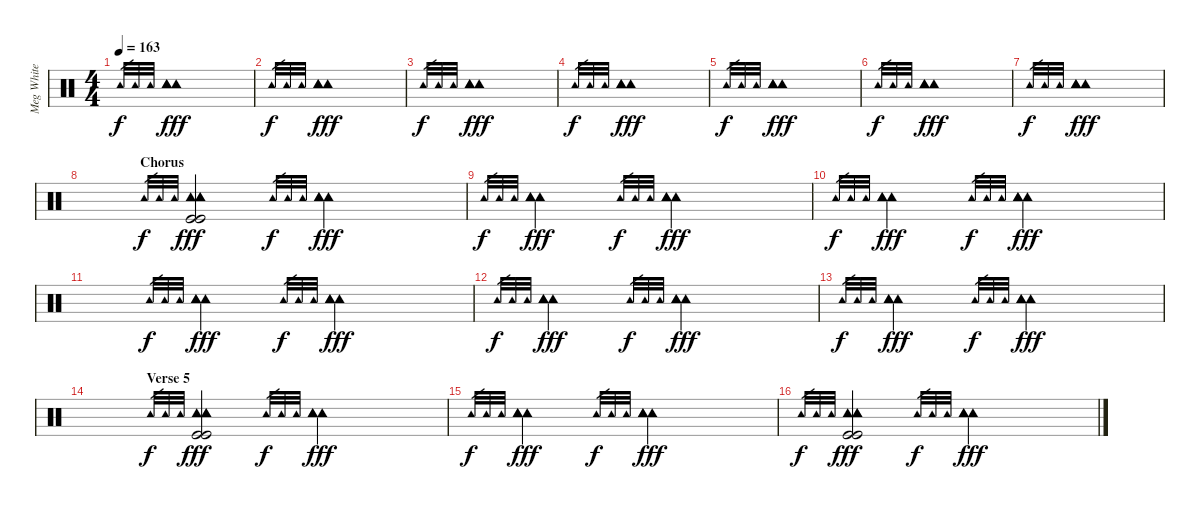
\track ("Meg White" "Meg White") {instrument percussion}
\staff {score}
\articulation defaults
\ts (4 4)
\tempo 163
\clef neutral
\ks c "Tambourine (hit)".32{gr dy f} "Tambourine (hit)".32{gr} "Tambourine (hit)".32{gr}
("Tambourine (hit)" "Tambourine (hit)" "Tambourine (hit)").1{dy fff} |
"Tambourine (hit)".32{gr dy f} "Tambourine (hit)".32{gr} "Tambourine (hit)".32{gr} ("Tambourine (hit)" "Tambourine (hit)" "Tambourine (hit)").1{dy fff} |
"Tambourine (hit)".32{gr dy f} "Tambourine (hit)".32{gr} "Tambourine (hit)".32{gr} ("Tambourine (hit)" "Tambourine (hit)" "Tambourine (hit)").1{dy fff} |
"Tambourine (hit)".32{gr dy f} "Tambourine (hit)".32{gr} "Tambourine (hit)".32{gr} ("Tambourine (hit)" "Tambourine (hit)" "Tambourine (hit)").1{dy fff} |
"Tambourine (hit)".32{gr dy f} "Tambourine (hit)".32{gr} "Tambourine (hit)".32{gr} ("Tambourine (hit)" "Tambourine (hit)" "Tambourine (hit)").1{dy fff} |
"Tambourine (hit)".32{gr dy f} "Tambourine (hit)".32{gr} "Tambourine (hit)".32{gr} ("Tambourine (hit)" "Tambourine (hit)" "Tambourine (hit)").1{dy fff} |
"Tambourine (hit)".32{gr dy f} "Tambourine (hit)".32{gr} "Tambourine (hit)".32{gr} ("Tambourine (hit)" "Tambourine (hit)" "Tambourine (hit)").1{dy fff} |
\section ("" "Chorus")
"Tambourine (hit)".32{gr dy f} "Tambourine (hit)".32{gr} "Tambourine (hit)".32{gr} ("Tambourine (hit)" "Tambourine (hit)" "Tambourine (hit)" "Kick (hit)" "Kick (hit)").2{dy fff} "Tambourine (hit)".32{gr dy f} "Tambourine (hit)".32{gr} "Tambourine (hit)".32{gr} ("Tambourine (hit)" "Tambourine (hit)" "Tambourine (hit)").2{dy fff} |
"Tambourine (hit)".32{gr dy f} "Tambourine (hit)".32{gr} "Tambourine (hit)".32{gr} ("Tambourine (hit)" "Tambourine (hit)" "Tambourine (hit)").2{dy fff} "Tambourine (hit)".32{gr dy f} "Tambourine (hit)".32{gr} "Tambourine (hit)".32{gr} ("Tambourine (hit)" "Tambourine (hit)" "Tambourine (hit)").2{dy fff} |
"Tambourine (hit)".32{gr dy f} "Tambourine (hit)".32{gr} "Tambourine (hit)".32{gr} ("Tambourine (hit)" "Tambourine (hit)" "Tambourine (hit)").2{dy fff} "Tambourine (hit)".32{gr dy f} "Tambourine (hit)".32{gr} "Tambourine (hit)".32{gr} ("Tambourine (hit)" "Tambourine (hit)" "Tambourine (hit)").2{dy fff} |
"Tambourine (hit)".32{gr dy f} "Tambourine (hit)".32{gr} "Tambourine (hit)".32{gr} ("Tambourine (hit)" "Tambourine (hit)" "Tambourine (hit)").2{dy fff} "Tambourine (hit)".32{gr dy f} "Tambourine (hit)".32{gr} "Tambourine (hit)".32{gr} ("Tambourine (hit)" "Tambourine (hit)" "Tambourine (hit)").2{dy fff} |
"Tambourine (hit)".32{gr dy f} "Tambourine (hit)".32{gr} "Tambourine (hit)".32{gr} ("Tambourine (hit)" "Tambourine (hit)" "Tambourine (hit)").2{dy fff} "Tambourine (hit)".32{gr dy f} "Tambourine (hit)".32{gr} "Tambourine (hit)".32{gr} ("Tambourine (hit)" "Tambourine (hit)" "Tambourine (hit)").2{dy fff} |
"Tambourine (hit)".32{gr dy f} "Tambourine (hit)".32{gr} "Tambourine (hit)".32{gr} ("Tambourine (hit)" "Tambourine (hit)" "Tambourine (hit)").2{dy fff} "Tambourine (hit)".32{gr dy f} "Tambourine (hit)".32{gr} "Tambourine (hit)".32{gr} ("Tambourine (hit)" "Tambourine (hit)" "Tambourine (hit)").2{dy fff} |
\section ("" "Verse 5")
"Tambourine (hit)".32{gr dy f} "Tambourine (hit)".32{gr} "Tambourine (hit)".32{gr} ("Tambourine (hit)" "Tambourine (hit)" "Tambourine (hit)" "Kick (hit)" "Kick (hit)").2{dy fff} "Tambourine (hit)".32{gr dy f} "Tambourine (hit)".32{gr} "Tambourine (hit)".32{gr} ("Tambourine (hit)" "Tambourine (hit)" "Tambourine (hit)").2{dy fff} |
"Tambourine (hit)".32{gr dy f} "Tambourine (hit)".32{gr} "Tambourine (hit)".32{gr} ("Tambourine (hit)" "Tambourine (hit)" "Tambourine (hit)").2{dy fff} "Tambourine (hit)".32{gr dy f} "Tambourine (hit)".32{gr} "Tambourine (hit)".32{gr} ("Tambourine (hit)" "Tambourine (hit)" "Tambourine (hit)").2{dy fff} |
"Tambourine (hit)".32{gr dy f} "Tambourine (hit)".32{gr} "Tambourine (hit)".32{gr} ("Tambourine (hit)" "Tambourine (hit)" "Tambourine (hit)" "Kick (hit)" "Kick (hit)").2{dy fff} "Tambourine (hit)".32{gr dy f} "Tambourine (hit)".32{gr} "Tambourine (hit)".32{gr} ("Tambourine (hit)" "Tambourine (hit)" "Tambourine (hit)").2{dy fff}
